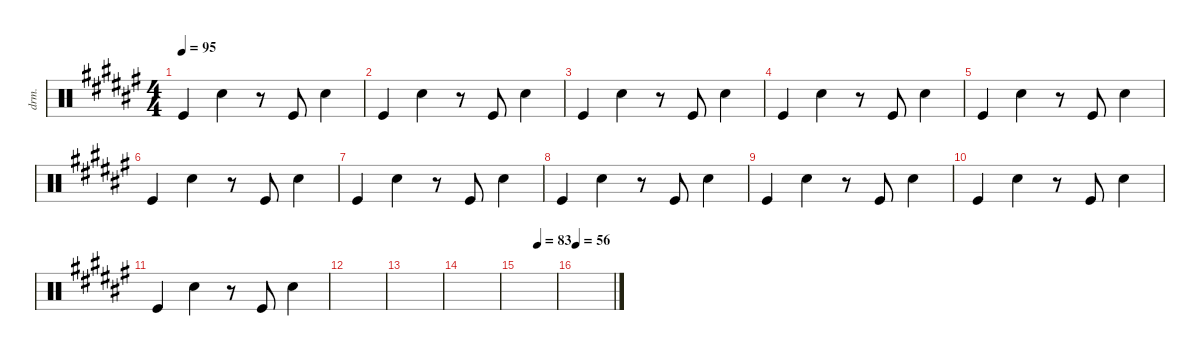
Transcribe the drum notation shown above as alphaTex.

\defaultSystemsLayout 4
\hideDynamics
\bracketExtendMode nobrackets
\otherSystemsTrackNameOrientation horizontal
\track ("Drumkit" "drm.") {instrument percussion}
\staff {score}
\articulation defaults
\ts (4 4)
\scale
1.09242
\tempo 95
\accidentals auto
\clef neutral
\ottava regular
\simile none
\ks f# "Kick (hit)".4{dy mf} "Snare (hit) 2".4
r.8 "Kick (hit)".8 "Snare (hit) 2".4 |
\scale
0.965684 "Kick (hit)".4 "Snare (hit) 2".4 r.8 "Kick (hit)".8 "Snare (hit) 2".4 |
\scale
0.976211 "Kick (hit)".4 "Snare (hit) 2".4 r.8 "Kick (hit)".8 "Snare (hit) 2".4 |
\scale
0.965684 "Kick (hit)".4 "Snare (hit) 2".4 r.8 "Kick (hit)".8 "Snare (hit) 2".4 |
\scale
1.11084 "Kick (hit)".4 "Snare (hit) 2".4 r.8 "Kick (hit)".8 "Snare (hit) 2".4 |
\scale
0.963053 "Kick (hit)".4 "Snare (hit) 2".4 r.8 "Kick (hit)".8 "Snare (hit) 2".4 |
\scale
0.963053 "Kick (hit)".4 "Snare (hit) 2".4 r.8 "Kick (hit)".8 "Snare (hit) 2".4 |
\scale
0.963053 "Kick (hit)".4 "Snare (hit) 2".4 r.8 "Kick (hit)".8 "Snare (hit) 2".4 |
\scale
1.11084 "Kick (hit)".4 "Snare (hit) 2".4 r.8 "Kick (hit)".8 "Snare (hit) 2".4 |
\scale
0.963053 "Kick (hit)".4 "Snare (hit) 2".4 r.8 "Kick (hit)".8 "Snare (hit) 2".4 |
\scale
0.963053 "Kick (hit)".4 "Snare (hit) 2".4 r.8 "Kick (hit)".8 "Snare (hit) 2".4 |
\scale
0.963053 |
\scale
1.11084 |
\scale
0.963053 |
\scale
0.963053
\tempo (83 0.5)
|
\scale
0.963053
\tempo 56
